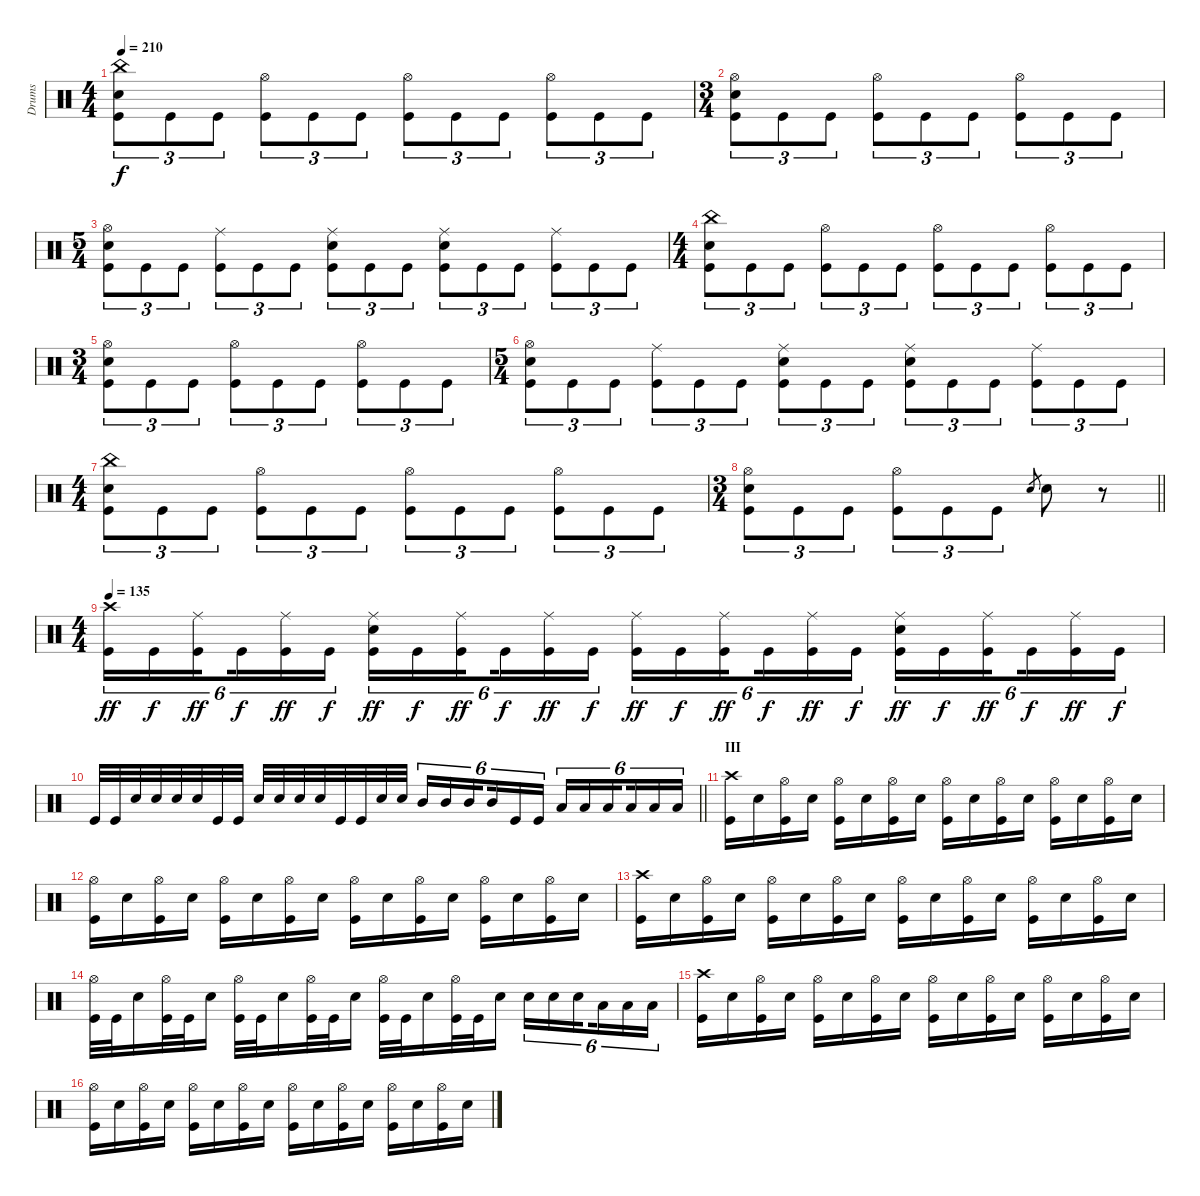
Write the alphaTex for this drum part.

\track ("Drums" "Drums") {instrument percussion}
\staff {score}
\articulation defaults
\ts (4 4)
\tempo 210
\clef neutral
\ks c
("Kick (hit)" "Electric Snare (hit)" "China (hit)").8{tu (3 2) dy f} "Kick (hit)".8{tu (3 2)} "Kick (hit)".8{tu (3 2)} ("Kick (hit)" "Hi-Hat (open)").8{tu (3 2)} "Kick (hit)".8{tu (3 2)} "Kick (hit)".8{tu (3 2)} ("Kick (hit)" "Hi-Hat (open)").8{tu (3 2)} "Kick (hit)".8{tu (3 2)} "Kick (hit)".8{tu (3 2)} ("Kick (hit)" "Hi-Hat (open)").8{tu (3 2)} "Kick (hit)".8{tu (3 2)} "Kick (hit)".8{tu (3 2)} |
\ts (3 4)
("Kick (hit)" "Electric Snare (hit)" "Hi-Hat (open)").8{tu (3 2)} "Kick (hit)".8{tu (3 2)} "Kick (hit)".8{tu (3 2)} ("Kick (hit)" "Hi-Hat (open)").8{tu (3 2)} "Kick (hit)".8{tu (3 2)} "Kick (hit)".8{tu (3 2)} ("Kick (hit)" "Hi-Hat (open)").8{tu (3 2)} "Kick (hit)".8{tu (3 2)} "Kick (hit)".8{tu (3 2)} |
\ts (5 4)
("Kick (hit)" "Electric Snare (hit)" "Hi-Hat (open)").8{tu (3 2)} "Kick (hit)".8{tu (3 2)} "Kick (hit)".8{tu (3 2)} ("Kick (hit)" "Ride (middle)").8{tu (3 2)} "Kick (hit)".8{tu (3 2)} "Kick (hit)".8{tu (3 2)} ("Kick (hit)" "Electric Snare (hit)" "Ride (middle)").8{tu (3 2)} "Kick (hit)".8{tu (3 2)} "Kick (hit)".8{tu (3 2)} ("Kick (hit)" "Electric Snare (hit)" "Ride (middle)").8{tu (3 2)} "Kick (hit)".8{tu (3 2)} "Kick (hit)".8{tu (3 2)} ("Kick (hit)" "Ride (middle)").8{tu (3 2)} "Kick (hit)".8{tu (3 2)} "Kick (hit)".8{tu (3 2)} |
\ts (4 4)
("Kick (hit)" "Electric Snare (hit)" "China (hit)").8{tu (3 2)} "Kick (hit)".8{tu (3 2)} "Kick (hit)".8{tu (3 2)} ("Kick (hit)" "Hi-Hat (open)").8{tu (3 2)} "Kick (hit)".8{tu (3 2)} "Kick (hit)".8{tu (3 2)} ("Kick (hit)" "Hi-Hat (open)").8{tu (3 2)} "Kick (hit)".8{tu (3 2)} "Kick (hit)".8{tu (3 2)} ("Kick (hit)" "Hi-Hat (open)").8{tu (3 2)} "Kick (hit)".8{tu (3 2)} "Kick (hit)".8{tu (3 2)} |
\ts (3 4)
("Kick (hit)" "Electric Snare (hit)" "Hi-Hat (open)").8{tu (3 2)} "Kick (hit)".8{tu (3 2)} "Kick (hit)".8{tu (3 2)} ("Kick (hit)" "Hi-Hat (open)").8{tu (3 2)} "Kick (hit)".8{tu (3 2)} "Kick (hit)".8{tu (3 2)} ("Kick (hit)" "Hi-Hat (open)").8{tu (3 2)} "Kick (hit)".8{tu (3 2)} "Kick (hit)".8{tu (3 2)} |
\ts (5 4)
("Kick (hit)" "Electric Snare (hit)" "Hi-Hat (open)").8{tu (3 2)} "Kick (hit)".8{tu (3 2)} "Kick (hit)".8{tu (3 2)} ("Kick (hit)" "Ride (middle)").8{tu (3 2)} "Kick (hit)".8{tu (3 2)} "Kick (hit)".8{tu (3 2)} ("Kick (hit)" "Electric Snare (hit)" "Ride (middle)").8{tu (3 2)} "Kick (hit)".8{tu (3 2)} "Kick (hit)".8{tu (3 2)} ("Kick (hit)" "Electric Snare (hit)" "Ride (middle)").8{tu (3 2)} "Kick (hit)".8{tu (3 2)} "Kick (hit)".8{tu (3 2)} ("Kick (hit)" "Ride (middle)").8{tu (3 2)} "Kick (hit)".8{tu (3 2)} "Kick (hit)".8{tu (3 2)} |
\ts (4 4)
("Kick (hit)" "Electric Snare (hit)" "China (hit)").8{tu (3 2)} "Kick (hit)".8{tu (3 2)} "Kick (hit)".8{tu (3 2)} ("Kick (hit)" "Hi-Hat (open)").8{tu (3 2)} "Kick (hit)".8{tu (3 2)} "Kick (hit)".8{tu (3 2)} ("Kick (hit)" "Hi-Hat (open)").8{tu (3 2)} "Kick (hit)".8{tu (3 2)} "Kick (hit)".8{tu (3 2)} ("Kick (hit)" "Hi-Hat (open)").8{tu (3 2)} "Kick (hit)".8{tu (3 2)} "Kick (hit)".8{tu (3 2)} |
\ts (3 4)
\barLineRight lightlight
("Kick (hit)" "Electric Snare (hit)" "Hi-Hat (open)").8{tu (3 2)} "Kick (hit)".8{tu (3 2)} "Kick (hit)".8{tu (3 2)} ("Kick (hit)" "Hi-Hat (open)").8{tu (3 2)} "Kick (hit)".8{tu (3 2)} "Kick (hit)".8{tu (3 2)} "Electric Snare (hit)".8{gr} "Electric Snare (hit)".8 r.8 |
\ts (4 4)
\tempo 135
("Kick (hit)" "Crash high (hit)").16{tu (6 4) dy ff} "Kick (hit)".16{tu (6 4) dy f} ("Kick (hit)" "Ride (middle)").16{tu (6 4) dy ff beam splitsecondary} "Kick (hit)".16{tu (6 4) dy f} ("Kick (hit)" "Ride (middle)").16{tu (6 4) dy ff} "Kick (hit)".16{tu (6 4) dy f} ("Kick (hit)" "Electric Snare (hit)" "Ride (middle)").16{tu (6 4) dy ff} "Kick (hit)".16{tu (6 4) dy f} ("Kick (hit)" "Ride (middle)").16{tu (6 4) dy ff beam splitsecondary} "Kick (hit)".16{tu (6 4) dy f} ("Kick (hit)" "Ride (middle)").16{tu (6 4) dy ff} "Kick (hit)".16{tu (6 4) dy f} ("Kick (hit)" "Ride (middle)").16{tu (6 4) dy ff} "Kick (hit)".16{tu (6 4) dy f} ("Kick (hit)" "Ride (middle)").16{tu (6 4) dy ff beam splitsecondary} "Kick (hit)".16{tu (6 4) dy f} ("Kick (hit)" "Ride (middle)").16{tu (6 4) dy ff} "Kick (hit)".16{tu (6 4) dy f} ("Kick (hit)" "Electric Snare (hit)" "Ride (middle)").16{tu (6 4) dy ff} "Kick (hit)".16{tu (6 4) dy f} ("Kick (hit)" "Ride (middle)").16{tu (6 4) dy ff beam splitsecondary} "Kick (hit)".16{tu (6 4) dy f} ("Kick (hit)" "Ride (middle)").16{tu (6 4) dy ff} "Kick (hit)".16{tu (6 4) dy f} |
\barLineRight lightlight "Kick (hit)".32 "Kick (hit)".32 "Electric Snare (hit)".32 "Electric Snare (hit)".32 "Electric Snare (hit)".32 "Electric Snare (hit)".32 "Kick (hit)".32 "Kick (hit)".32 "Electric Snare (hit)".32 "Electric Snare (hit)".32 "Electric Snare (hit)".32 "Electric Snare (hit)".32 "Kick (hit)".32 "Kick (hit)".32 "Electric Snare (hit)".32 "Electric Snare (hit)".32 "Mid Tom (hit)".16{tu (6 4)} "Mid Tom (hit)".16{tu (6 4)} "Mid Tom (hit)".16{tu (6 4) beam splitsecondary} "Mid Tom (hit)".16{tu (6 4)} "Kick (hit)".16{tu (6 4)} "Kick (hit)".16{tu (6 4)} "Low Tom (hit)".16{tu (6 4)} "Low Tom (hit)".16{tu (6 4)} "Low Tom (hit)".16{tu (6 4) beam splitsecondary} "Low Tom (hit)".16{tu (6 4)} "Low Tom (hit)".16{tu (6 4)} "Low Tom (hit)".16{tu (6 4)}
|
\section ("" "III")
("Kick (hit)" "Crash high (hit)").16 "Electric Snare (hit)".16 ("Kick (hit)" "Hi-Hat (open)").16 "Electric Snare (hit)".16 ("Kick (hit)" "Hi-Hat (open)").16 "Electric Snare (hit)".16 ("Kick (hit)" "Hi-Hat (open)").16 "Electric Snare (hit)".16 ("Kick (hit)" "Hi-Hat (open)").16 "Electric Snare (hit)".16 ("Kick (hit)" "Hi-Hat (open)").16 "Electric Snare (hit)".16 ("Kick (hit)" "Hi-Hat (open)").16 "Electric Snare (hit)".16 ("Kick (hit)" "Hi-Hat (open)").16 "Electric Snare (hit)".16 |
("Kick (hit)" "Hi-Hat (open)").16 "Electric Snare (hit)".16 ("Kick (hit)" "Hi-Hat (open)").16 "Electric Snare (hit)".16 ("Kick (hit)" "Hi-Hat (open)").16 "Electric Snare (hit)".16 ("Kick (hit)" "Hi-Hat (open)").16 "Electric Snare (hit)".16 ("Kick (hit)" "Hi-Hat (open)").16 "Electric Snare (hit)".16 ("Kick (hit)" "Hi-Hat (open)").16 "Electric Snare (hit)".16 ("Kick (hit)" "Hi-Hat (open)").16 "Electric Snare (hit)".16 ("Kick (hit)" "Hi-Hat (open)").16 "Electric Snare (hit)".16 |
("Kick (hit)" "Crash high (hit)").16 "Electric Snare (hit)".16 ("Kick (hit)" "Hi-Hat (open)").16 "Electric Snare (hit)".16 ("Kick (hit)" "Hi-Hat (open)").16 "Electric Snare (hit)".16 ("Kick (hit)" "Hi-Hat (open)").16 "Electric Snare (hit)".16 ("Kick (hit)" "Hi-Hat (open)").16 "Electric Snare (hit)".16 ("Kick (hit)" "Hi-Hat (open)").16 "Electric Snare (hit)".16 ("Kick (hit)" "Hi-Hat (open)").16 "Electric Snare (hit)".16 ("Kick (hit)" "Hi-Hat (open)").16 "Electric Snare (hit)".16 |
("Kick (hit)" "Hi-Hat (open)").32 "Kick (hit)".32 "Electric Snare (hit)".16 ("Kick (hit)" "Hi-Hat (open)").32 "Kick (hit)".32 "Electric Snare (hit)".16 ("Kick (hit)" "Hi-Hat (open)").32 "Kick (hit)".32 "Electric Snare (hit)".16 ("Kick (hit)" "Hi-Hat (open)").32 "Kick (hit)".32 "Electric Snare (hit)".16 ("Kick (hit)" "Hi-Hat (open)").32 "Kick (hit)".32 "Electric Snare (hit)".16 ("Kick (hit)" "Hi-Hat (open)").32 "Kick (hit)".32 "Electric Snare (hit)".16 "Electric Snare (hit)".16{tu (6 4)} "Electric Snare (hit)".16{tu (6 4)} "Electric Snare (hit)".16{tu (6 4) beam splitsecondary} "Low Tom (hit)".16{tu (6 4)} "Low Tom (hit)".16{tu (6 4)} "Low Tom (hit)".16{tu (6 4)} |
("Kick (hit)" "Crash high (hit)").16 "Electric Snare (hit)".16 ("Kick (hit)" "Hi-Hat (open)").16 "Electric Snare (hit)".16 ("Kick (hit)" "Hi-Hat (open)").16 "Electric Snare (hit)".16 ("Kick (hit)" "Hi-Hat (open)").16 "Electric Snare (hit)".16 ("Kick (hit)" "Hi-Hat (open)").16 "Electric Snare (hit)".16 ("Kick (hit)" "Hi-Hat (open)").16 "Electric Snare (hit)".16 ("Kick (hit)" "Hi-Hat (open)").16 "Electric Snare (hit)".16 ("Kick (hit)" "Hi-Hat (open)").16 "Electric Snare (hit)".16 |
("Kick (hit)" "Hi-Hat (open)").16 "Electric Snare (hit)".16 ("Kick (hit)" "Hi-Hat (open)").16 "Electric Snare (hit)".16 ("Kick (hit)" "Hi-Hat (open)").16 "Electric Snare (hit)".16 ("Kick (hit)" "Hi-Hat (open)").16 "Electric Snare (hit)".16 ("Kick (hit)" "Hi-Hat (open)").16 "Electric Snare (hit)".16 ("Kick (hit)" "Hi-Hat (open)").16 "Electric Snare (hit)".16 ("Kick (hit)" "Hi-Hat (open)").16 "Electric Snare (hit)".16 ("Kick (hit)" "Hi-Hat (open)").16 "Electric Snare (hit)".16
